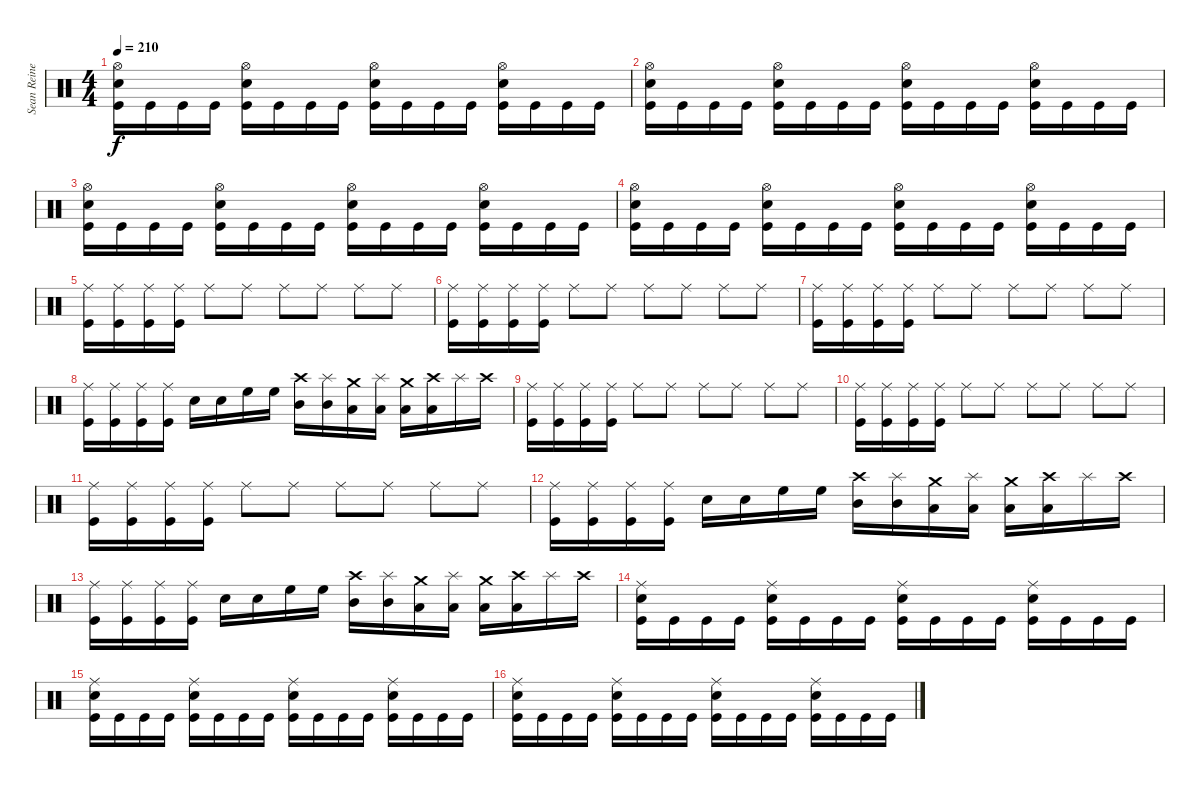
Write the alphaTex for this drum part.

\track ("Sean Reinert" "Sean Reine") {instrument percussion}
\staff {score}
\articulation defaults
\ts (4 4)
\tempo 210
\clef neutral
\ks c
("Hi-Hat (open)" "Snare (hit) 2" "Kick (hit)").16{dy f} "Kick (hit)".16 "Kick (hit)".16 "Kick (hit)".16 ("Hi-Hat (open)" "Snare (hit) 2" "Kick (hit)").16 "Kick (hit)".16 "Kick (hit)".16 "Kick (hit)".16 ("Hi-Hat (open)" "Snare (hit) 2" "Kick (hit)").16 "Kick (hit)".16 "Kick (hit)".16 "Kick (hit)".16 ("Hi-Hat (open)" "Snare (hit) 2" "Kick (hit)").16 "Kick (hit)".16 "Kick (hit)".16 "Kick (hit)".16 |
("Hi-Hat (open)" "Snare (hit) 2" "Kick (hit)").16 "Kick (hit)".16 "Kick (hit)".16 "Kick (hit)".16 ("Hi-Hat (open)" "Snare (hit) 2" "Kick (hit)").16 "Kick (hit)".16 "Kick (hit)".16 "Kick (hit)".16 ("Hi-Hat (open)" "Snare (hit) 2" "Kick (hit)").16 "Kick (hit)".16 "Kick (hit)".16 "Kick (hit)".16 ("Hi-Hat (open)" "Snare (hit) 2" "Kick (hit)").16 "Kick (hit)".16 "Kick (hit)".16 "Kick (hit)".16 |
("Hi-Hat (open)" "Snare (hit) 2" "Kick (hit)").16 "Kick (hit)".16 "Kick (hit)".16 "Kick (hit)".16 ("Hi-Hat (open)" "Snare (hit) 2" "Kick (hit)").16 "Kick (hit)".16 "Kick (hit)".16 "Kick (hit)".16 ("Hi-Hat (open)" "Snare (hit) 2" "Kick (hit)").16 "Kick (hit)".16 "Kick (hit)".16 "Kick (hit)".16 ("Hi-Hat (open)" "Snare (hit) 2" "Kick (hit)").16 "Kick (hit)".16 "Kick (hit)".16 "Kick (hit)".16 |
("Hi-Hat (open)" "Snare (hit) 2" "Kick (hit)").16 "Kick (hit)".16 "Kick (hit)".16 "Kick (hit)".16 ("Hi-Hat (open)" "Snare (hit) 2" "Kick (hit)").16 "Kick (hit)".16 "Kick (hit)".16 "Kick (hit)".16 ("Hi-Hat (open)" "Snare (hit) 2" "Kick (hit)").16 "Kick (hit)".16 "Kick (hit)".16 "Kick (hit)".16 ("Hi-Hat (open)" "Snare (hit) 2" "Kick (hit)").16 "Kick (hit)".16 "Kick (hit)".16 "Kick (hit)".16 |
("Ride (middle)" "Kick (hit)").16 ("Ride (middle)" "Kick (hit)").16 ("Ride (middle)" "Kick (hit)").16 ("Ride (middle)" "Kick (hit)").16 "Ride (middle)".8 "Ride (middle)".8 "Ride (middle)".8 "Ride (middle)".8 "Ride (middle)".8 "Ride (middle)".8 |
("Ride (middle)" "Kick (hit)").16 ("Ride (middle)" "Kick (hit)").16 ("Ride (middle)" "Kick (hit)").16 ("Ride (middle)" "Kick (hit)").16 "Ride (middle)".8 "Ride (middle)".8 "Ride (middle)".8 "Ride (middle)".8 "Ride (middle)".8 "Ride (middle)".8 |
("Ride (middle)" "Kick (hit)").16 ("Ride (middle)" "Kick (hit)").16 ("Ride (middle)" "Kick (hit)").16 ("Ride (middle)" "Kick (hit)").16 "Ride (middle)".8 "Ride (middle)".8 "Ride (middle)".8 "Ride (middle)".8 "Ride (middle)".8 "Ride (middle)".8 |
("Ride (middle)" "Kick (hit)").16 ("Ride (middle)" "Kick (hit)").16 ("Ride (middle)" "Kick (hit)").16 ("Ride (middle)" "Kick (hit)").16 "Snare (hit) 2".16 "Snare (hit) 2".16 "High Floor Tom (hit)".16 "High Floor Tom (hit)".16 ("Crash high (hit)" "Mid Tom (hit)").16 ("Splash (hit)" "Mid Tom (hit)").16 ("Crash medium (hit)" "Low Tom (hit)").16 ("Splash (hit)" "Low Tom (hit)").16 ("Crash medium (hit)" "Low Floor Tom (hit)").16 ("Crash high (hit)" "Low Floor Tom (hit)").16 "Splash (hit)".16 "Crash high (hit)".16 |
("Ride (middle)" "Kick (hit)").16 ("Ride (middle)" "Kick (hit)").16 ("Ride (middle)" "Kick (hit)").16 ("Ride (middle)" "Kick (hit)").16 "Ride (middle)".8 "Ride (middle)".8 "Ride (middle)".8 "Ride (middle)".8 "Ride (middle)".8 "Ride (middle)".8 |
("Ride (middle)" "Kick (hit)").16 ("Ride (middle)" "Kick (hit)").16 ("Ride (middle)" "Kick (hit)").16 ("Ride (middle)" "Kick (hit)").16 "Ride (middle)".8 "Ride (middle)".8 "Ride (middle)".8 "Ride (middle)".8 "Ride (middle)".8 "Ride (middle)".8 |
("Ride (middle)" "Kick (hit)").16 ("Ride (middle)" "Kick (hit)").16 ("Ride (middle)" "Kick (hit)").16 ("Ride (middle)" "Kick (hit)").16 "Ride (middle)".8 "Ride (middle)".8 "Ride (middle)".8 "Ride (middle)".8 "Ride (middle)".8 "Ride (middle)".8 |
("Ride (middle)" "Kick (hit)").16 ("Ride (middle)" "Kick (hit)").16 ("Ride (middle)" "Kick (hit)").16 ("Ride (middle)" "Kick (hit)").16 "Snare (hit) 2".16 "Snare (hit) 2".16 "High Floor Tom (hit)".16 "High Floor Tom (hit)".16 ("Crash high (hit)" "Mid Tom (hit)").16 ("Splash (hit)" "Mid Tom (hit)").16 ("Crash medium (hit)" "Low Tom (hit)").16 ("Splash (hit)" "Low Tom (hit)").16 ("Crash medium (hit)" "Low Floor Tom (hit)").16 ("Crash high (hit)" "Low Floor Tom (hit)").16 "Splash (hit)".16 "Crash high (hit)".16 |
("Ride (middle)" "Kick (hit)").16 ("Ride (middle)" "Kick (hit)").16 ("Ride (middle)" "Kick (hit)").16 ("Ride (middle)" "Kick (hit)").16 "Snare (hit) 2".16 "Snare (hit) 2".16 "High Floor Tom (hit)".16 "High Floor Tom (hit)".16 ("Crash high (hit)" "Mid Tom (hit)").16 ("Splash (hit)" "Mid Tom (hit)").16 ("Crash medium (hit)" "Low Tom (hit)").16 ("Splash (hit)" "Low Tom (hit)").16 ("Crash medium (hit)" "Low Floor Tom (hit)").16 ("Crash high (hit)" "Low Floor Tom (hit)").16 "Splash (hit)".16 "Crash high (hit)".16 |
("Ride (middle)" "Snare (hit) 2" "Kick (hit)").16 "Kick (hit)".16 "Kick (hit)".16 "Kick (hit)".16 ("Ride (middle)" "Snare (hit) 2" "Kick (hit)").16 "Kick (hit)".16 "Kick (hit)".16 "Kick (hit)".16 ("Ride (middle)" "Snare (hit) 2" "Kick (hit)").16 "Kick (hit)".16 "Kick (hit)".16 "Kick (hit)".16 ("Ride (middle)" "Snare (hit) 2" "Kick (hit)").16 "Kick (hit)".16 "Kick (hit)".16 "Kick (hit)".16 |
("Ride (middle)" "Snare (hit) 2" "Kick (hit)").16 "Kick (hit)".16 "Kick (hit)".16 "Kick (hit)".16 ("Ride (middle)" "Snare (hit) 2" "Kick (hit)").16 "Kick (hit)".16 "Kick (hit)".16 "Kick (hit)".16 ("Ride (middle)" "Snare (hit) 2" "Kick (hit)").16 "Kick (hit)".16 "Kick (hit)".16 "Kick (hit)".16 ("Ride (middle)" "Snare (hit) 2" "Kick (hit)").16 "Kick (hit)".16 "Kick (hit)".16 "Kick (hit)".16 |
("Ride (middle)" "Snare (hit) 2" "Kick (hit)").16 "Kick (hit)".16 "Kick (hit)".16 "Kick (hit)".16 ("Ride (middle)" "Snare (hit) 2" "Kick (hit)").16 "Kick (hit)".16 "Kick (hit)".16 "Kick (hit)".16 ("Ride (middle)" "Snare (hit) 2" "Kick (hit)").16 "Kick (hit)".16 "Kick (hit)".16 "Kick (hit)".16 ("Ride (middle)" "Snare (hit) 2" "Kick (hit)").16 "Kick (hit)".16 "Kick (hit)".16 "Kick (hit)".16
